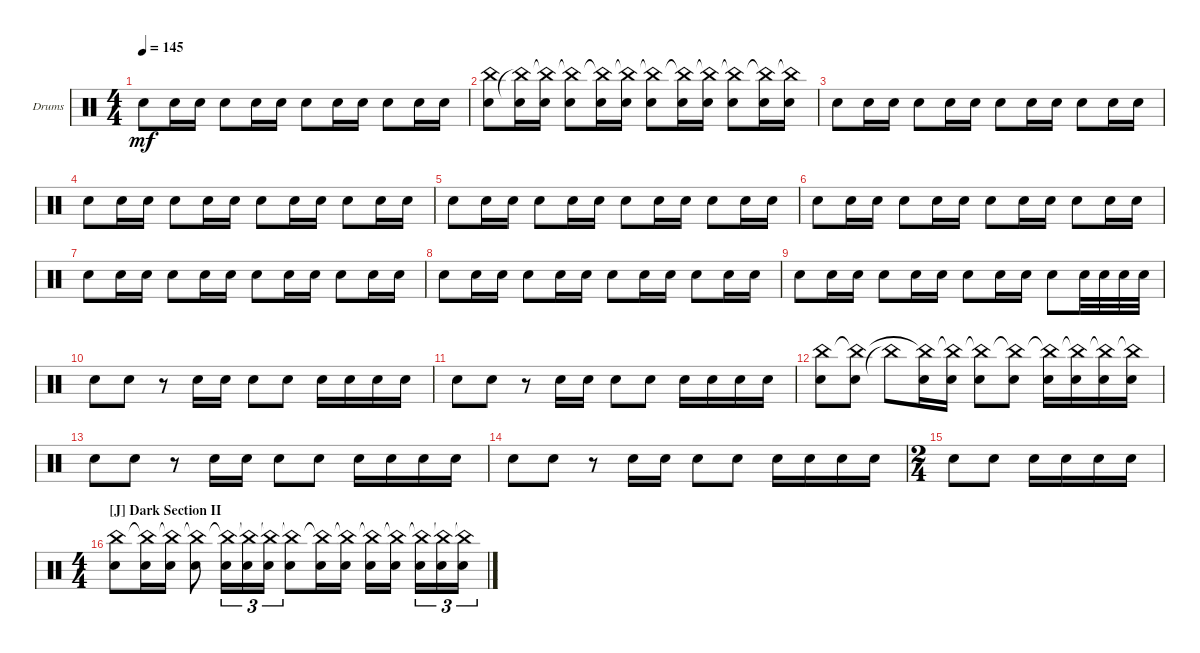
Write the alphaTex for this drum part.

\defaultSystemsLayout 4
\bracketExtendMode groupsimilarinstruments
\firstSystemTrackNameOrientation horizontal
\otherSystemsTrackNameOrientation horizontal
\track ("Drumkit" "Drums") {instrument percussion}
\staff {score}
\articulation defaults
\ts (4 4)
\tempo 145
\clef neutral
\scale
0.333333
\ks c "Snare (hit) 2".8{dy mf} "Snare (hit) 2".16 "Snare (hit) 2".16 "Snare (hit) 2".8 "Snare (hit) 2".16 "Snare (hit) 2".16 "Snare (hit) 2".8 "Snare (hit) 2".16 "Snare (hit) 2".16 "Snare (hit) 2".8 "Snare (hit) 2".16 "Snare (hit) 2".16
|
\scale
0.333333 ("China (hit)" "Snare (hit) 2").8 ("Snare (hit) 2" "China (hit)"{t}).16 ("Snare (hit) 2" "China (hit)"{t}).16 ("Snare (hit) 2" "China (hit)"{t}).8 ("Snare (hit) 2" "China (hit)"{t}).16 ("Snare (hit) 2" "China (hit)"{t}).16 ("Snare (hit) 2" "China (hit)"{t}).8 ("Snare (hit) 2" "China (hit)"{t}).16 ("Snare (hit) 2" "China (hit)"{t}).16 ("Snare (hit) 2" "China (hit)"{t}).8 ("Snare (hit) 2" "China (hit)"{t}).16 ("Snare (hit) 2" "China (hit)"{t}).16 |
\scale
0.333333 "Snare (hit) 2".8 "Snare (hit) 2".16 "Snare (hit) 2".16 "Snare (hit) 2".8 "Snare (hit) 2".16 "Snare (hit) 2".16 "Snare (hit) 2".8 "Snare (hit) 2".16 "Snare (hit) 2".16 "Snare (hit) 2".8 "Snare (hit) 2".16 "Snare (hit) 2".16 |
\scale
0.333333 "Snare (hit) 2".8 "Snare (hit) 2".16 "Snare (hit) 2".16 "Snare (hit) 2".8 "Snare (hit) 2".16 "Snare (hit) 2".16 "Snare (hit) 2".8 "Snare (hit) 2".16 "Snare (hit) 2".16 "Snare (hit) 2".8 "Snare (hit) 2".16 "Snare (hit) 2".16 |
\scale
0.333333 "Snare (hit) 2".8 "Snare (hit) 2".16 "Snare (hit) 2".16 "Snare (hit) 2".8 "Snare (hit) 2".16 "Snare (hit) 2".16 "Snare (hit) 2".8 "Snare (hit) 2".16 "Snare (hit) 2".16 "Snare (hit) 2".8 "Snare (hit) 2".16 "Snare (hit) 2".16 |
\scale
0.333333 "Snare (hit) 2".8 "Snare (hit) 2".16 "Snare (hit) 2".16 "Snare (hit) 2".8 "Snare (hit) 2".16 "Snare (hit) 2".16 "Snare (hit) 2".8 "Snare (hit) 2".16 "Snare (hit) 2".16 "Snare (hit) 2".8 "Snare (hit) 2".16 "Snare (hit) 2".16 |
\scale
0.333333 "Snare (hit) 2".8 "Snare (hit) 2".16 "Snare (hit) 2".16 "Snare (hit) 2".8 "Snare (hit) 2".16 "Snare (hit) 2".16 "Snare (hit) 2".8 "Snare (hit) 2".16 "Snare (hit) 2".16 "Snare (hit) 2".8 "Snare (hit) 2".16 "Snare (hit) 2".16 |
\scale
0.333333 "Snare (hit) 2".8 "Snare (hit) 2".16 "Snare (hit) 2".16 "Snare (hit) 2".8 "Snare (hit) 2".16 "Snare (hit) 2".16 "Snare (hit) 2".8 "Snare (hit) 2".16 "Snare (hit) 2".16 "Snare (hit) 2".8 "Snare (hit) 2".16 "Snare (hit) 2".16 |
\scale
0.333333 "Snare (hit) 2".8 "Snare (hit) 2".16 "Snare (hit) 2".16 "Snare (hit) 2".8 "Snare (hit) 2".16 "Snare (hit) 2".16 "Snare (hit) 2".8 "Snare (hit) 2".16 "Snare (hit) 2".16 "Snare (hit) 2".8 "Snare (hit) 2".32 "Snare (hit) 2".32 "Snare (hit) 2".32 "Snare (hit) 2".32 |
\scale
0.333333 "Snare (hit) 2".8 "Snare (hit) 2".8 r.8 "Snare (hit) 2".16 "Snare (hit) 2".16 "Snare (hit) 2".8 "Snare (hit) 2".8 "Snare (hit) 2".16 "Snare (hit) 2".16 "Snare (hit) 2".16 "Snare (hit) 2".16 |
\scale
0.333333 "Snare (hit) 2".8 "Snare (hit) 2".8 r.8 "Snare (hit) 2".16 "Snare (hit) 2".16 "Snare (hit) 2".8 "Snare (hit) 2".8 "Snare (hit) 2".16 "Snare (hit) 2".16 "Snare (hit) 2".16 "Snare (hit) 2".16 |
\scale
0.333333 ("Snare (hit) 2" "China (hit)").8 ("Snare (hit) 2" "China (hit)"{t}).8 "China (hit)"{t}.8 ("Snare (hit) 2" "China (hit)"{t}).16 ("Snare (hit) 2" "China (hit)"{t}).16 ("Snare (hit) 2" "China (hit)"{t}).8 ("Snare (hit) 2" "China (hit)"{t}).8 ("Snare (hit) 2" "China (hit)"{t}).16 ("Snare (hit) 2" "China (hit)"{t}).16 ("Snare (hit) 2" "China (hit)"{t}).16 ("Snare (hit) 2" "China (hit)"{t}).16 |
\scale
0.333333 "Snare (hit) 2".8 "Snare (hit) 2".8 r.8 "Snare (hit) 2".16 "Snare (hit) 2".16 "Snare (hit) 2".8 "Snare (hit) 2".8 "Snare (hit) 2".16 "Snare (hit) 2".16 "Snare (hit) 2".16 "Snare (hit) 2".16 |
\scale
0.218391 "Snare (hit) 2".8 "Snare (hit) 2".8 r.8 "Snare (hit) 2".16 "Snare (hit) 2".16 "Snare (hit) 2".8 "Snare (hit) 2".8 "Snare (hit) 2".16 "Snare (hit) 2".16 "Snare (hit) 2".16 "Snare (hit) 2".16 |
\ts (2 4)
\scale
0.390805 "Snare (hit) 2".8 "Snare (hit) 2".8 "Snare (hit) 2".16 "Snare (hit) 2".16 "Snare (hit) 2".16 "Snare (hit) 2".16 |
\ts (4 4)
\section ("J" "Dark Section II")
\scale
0.390805 ("Snare (hit) 2" "China (hit)").8 ("Snare (hit) 2" "China (hit)"{t}).16 ("Snare (hit) 2" "China (hit)"{t}).16 ("Snare (hit) 2" "China (hit)"{t}).8 ("Snare (hit) 2" "China (hit)"{t}).16{tu (3 2)} ("Snare (hit) 2" "China (hit)"{t}).16{tu (3 2)} ("Snare (hit) 2" "China (hit)"{t}).16{tu (3 2)} ("Snare (hit) 2" "China (hit)"{t}).8 ("Snare (hit) 2" "China (hit)"{t}).16 ("Snare (hit) 2" "China (hit)"{t}).16 ("Snare (hit) 2" "China (hit)"{t}).16 ("Snare (hit) 2" "China (hit)"{t}).16 ("Snare (hit) 2" "China (hit)"{t}).16{tu (3 2)} ("Snare (hit) 2" "China (hit)"{t}).16{tu (3 2)} ("Snare (hit) 2" "China (hit)"{t}).16{tu (3 2)}
